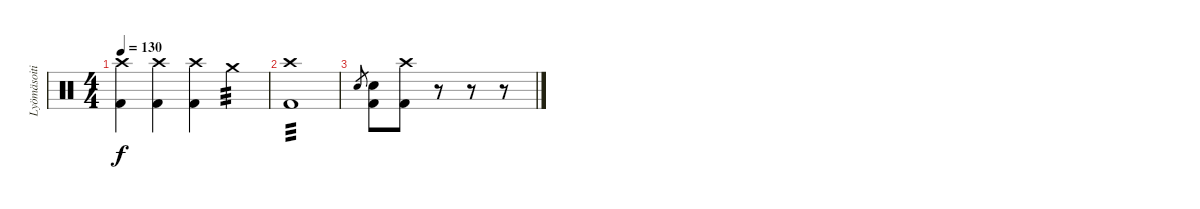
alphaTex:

\track ("Lyömäsoitin" "Lyömäsoiti") {instrument percussion}
\staff {score}
\articulation defaults
\ts (4 4)
\tempo 130
\clef neutral
\ks c
("Crash high (hit)" "Kick (hit) 2").4{dy f} ("Crash high (hit)" "Kick (hit) 2").4 ("Crash high (hit)" "Kick (hit) 2").4 "Crash medium (hit)".4{tp 3} |
("Crash high (hit)" "Kick (hit) 2").1{tp 3} |
"Snare (hit) 2".8{gr} ("Snare (hit) 2" "Kick (hit) 2").8 ("Crash high (hit)" "Kick (hit) 2").8 r.8 r.8 r.8
